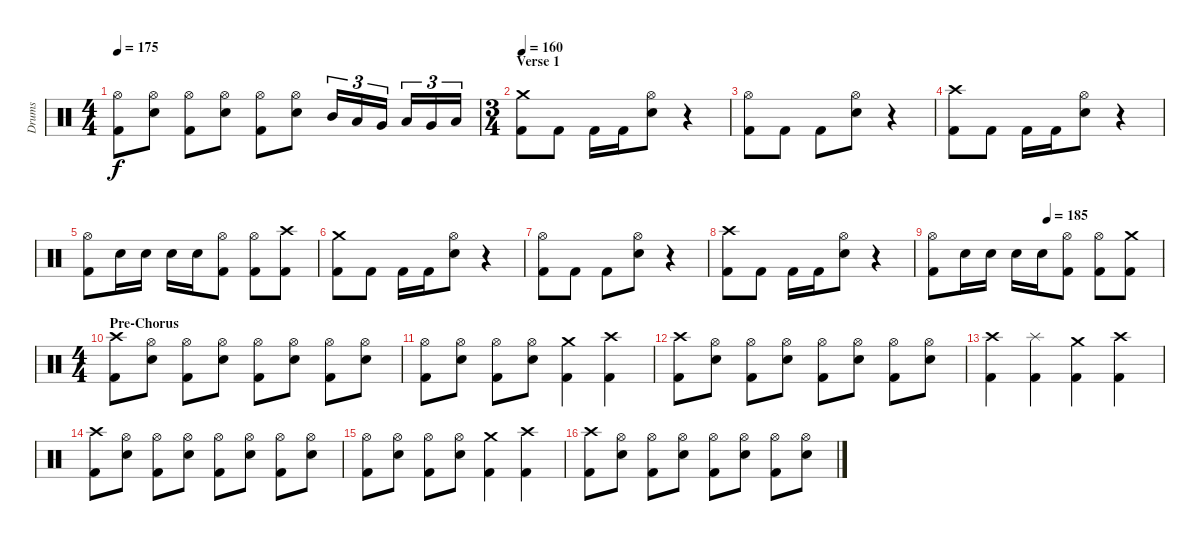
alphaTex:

\track ("Drums" "Drums") {instrument percussion}
\staff {score}
\articulation defaults
\ts (4 4)
\tempo 175
\clef neutral
\ks c
("Hi-Hat (open)" "Kick (hit) 2").8{dy f} ("Hi-Hat (open)" "Snare (hit) 2").8 ("Hi-Hat (open)" "Kick (hit) 2").8 ("Hi-Hat (open)" "Snare (hit) 2").8 ("Hi-Hat (open)" "Kick (hit) 2").8 ("Hi-Hat (open)" "Snare (hit) 2").8 "Mid Tom (hit)".16{tu (3 2)} "Low Tom (hit)".16{tu (3 2)} "Very Low Tom (hit)".16{tu (3 2)} "Low Tom (hit)".16{tu (3 2)} "Very Low Tom (hit)".16{tu (3 2)} "Low Floor Tom (hit)".16{tu (3 2)} |
\ts (3 4)
\section ("" "Verse 1")
\tempo 160
("Crash medium (hit)" "Kick (hit) 2").8 "Kick (hit) 2".8 "Kick (hit) 2".16 "Kick (hit) 2".16 ("Hi-Hat (open)" "Snare (hit) 2").8 r.4 |
("Hi-Hat (open)" "Kick (hit) 2").8 "Kick (hit) 2".8 "Kick (hit) 2".8 ("Hi-Hat (open)" "Snare (hit) 2").8 r.4 |
("Crash high (hit)" "Kick (hit) 2").8 "Kick (hit) 2".8 "Kick (hit) 2".16 "Kick (hit) 2".16 ("Hi-Hat (open)" "Snare (hit) 2").8 r.4 |
("Hi-Hat (open)" "Kick (hit) 2").8 "Snare (hit) 2".16 "Snare (hit) 2".16 "Snare (hit) 2".16 "Snare (hit) 2".16 ("Hi-Hat (open)" "Kick (hit) 2").8 ("Hi-Hat (open)" "Kick (hit) 2").8 ("Crash high (hit)" "Kick (hit) 2").8 |
("Crash medium (hit)" "Kick (hit) 2").8 "Kick (hit) 2".8 "Kick (hit) 2".16 "Kick (hit) 2".16 ("Hi-Hat (open)" "Snare (hit) 2").8 r.4 |
("Hi-Hat (open)" "Kick (hit) 2").8 "Kick (hit) 2".8 "Kick (hit) 2".8 ("Hi-Hat (open)" "Snare (hit) 2").8 r.4 |
("Crash high (hit)" "Kick (hit) 2").8 "Kick (hit) 2".8 "Kick (hit) 2".16 "Kick (hit) 2".16 ("Hi-Hat (open)" "Snare (hit) 2").8 r.4 |
\tempo (185 0.5)
("Hi-Hat (open)" "Kick (hit) 2").8 "Snare (hit) 2".16 "Snare (hit) 2".16 "Snare (hit) 2".16 "Snare (hit) 2".16 ("Hi-Hat (open)" "Kick (hit) 2").8 ("Hi-Hat (open)" "Kick (hit) 2").8 ("Crash medium (hit)" "Kick (hit) 2").8 |
\ts (4 4)
\section ("" "Pre-Chorus")
("Crash high (hit)" "Kick (hit) 2").8 ("Hi-Hat (open)" "Snare (hit) 2").8 ("Hi-Hat (open)" "Kick (hit) 2").8 ("Hi-Hat (open)" "Snare (hit) 2").8 ("Hi-Hat (open)" "Kick (hit) 2").8 ("Hi-Hat (open)" "Snare (hit) 2").8 ("Hi-Hat (open)" "Kick (hit) 2").8 ("Hi-Hat (open)" "Snare (hit) 2").8 |
("Hi-Hat (open)" "Kick (hit) 2").8 ("Hi-Hat (open)" "Snare (hit) 2").8 ("Hi-Hat (open)" "Kick (hit) 2").8 ("Hi-Hat (open)" "Snare (hit) 2").8 ("Crash medium (hit)" "Kick (hit) 2").4 ("Crash high (hit)" "Kick (hit) 2").4 |
("Crash high (hit)" "Kick (hit) 2").8 ("Hi-Hat (open)" "Snare (hit) 2").8 ("Hi-Hat (open)" "Kick (hit) 2").8 ("Hi-Hat (open)" "Snare (hit) 2").8 ("Hi-Hat (open)" "Kick (hit) 2").8 ("Hi-Hat (open)" "Snare (hit) 2").8 ("Hi-Hat (open)" "Kick (hit) 2").8 ("Hi-Hat (open)" "Snare (hit) 2").8 |
("Crash high (hit)" "Kick (hit) 2").4 ("Splash (hit)" "Kick (hit) 2").4 ("Crash medium (hit)" "Kick (hit) 2").4 ("Crash high (hit)" "Kick (hit) 2").4 |
("Crash high (hit)" "Kick (hit) 2").8 ("Hi-Hat (open)" "Snare (hit) 2").8 ("Hi-Hat (open)" "Kick (hit) 2").8 ("Hi-Hat (open)" "Snare (hit) 2").8 ("Hi-Hat (open)" "Kick (hit) 2").8 ("Hi-Hat (open)" "Snare (hit) 2").8 ("Hi-Hat (open)" "Kick (hit) 2").8 ("Hi-Hat (open)" "Snare (hit) 2").8 |
("Hi-Hat (open)" "Kick (hit) 2").8 ("Hi-Hat (open)" "Snare (hit) 2").8 ("Hi-Hat (open)" "Kick (hit) 2").8 ("Hi-Hat (open)" "Snare (hit) 2").8 ("Crash medium (hit)" "Kick (hit) 2").4 ("Crash high (hit)" "Kick (hit) 2").4 |
("Crash high (hit)" "Kick (hit) 2").8 ("Hi-Hat (open)" "Snare (hit) 2").8 ("Hi-Hat (open)" "Kick (hit) 2").8 ("Hi-Hat (open)" "Snare (hit) 2").8 ("Hi-Hat (open)" "Kick (hit) 2").8 ("Hi-Hat (open)" "Snare (hit) 2").8 ("Hi-Hat (open)" "Kick (hit) 2").8 ("Hi-Hat (open)" "Snare (hit) 2").8
